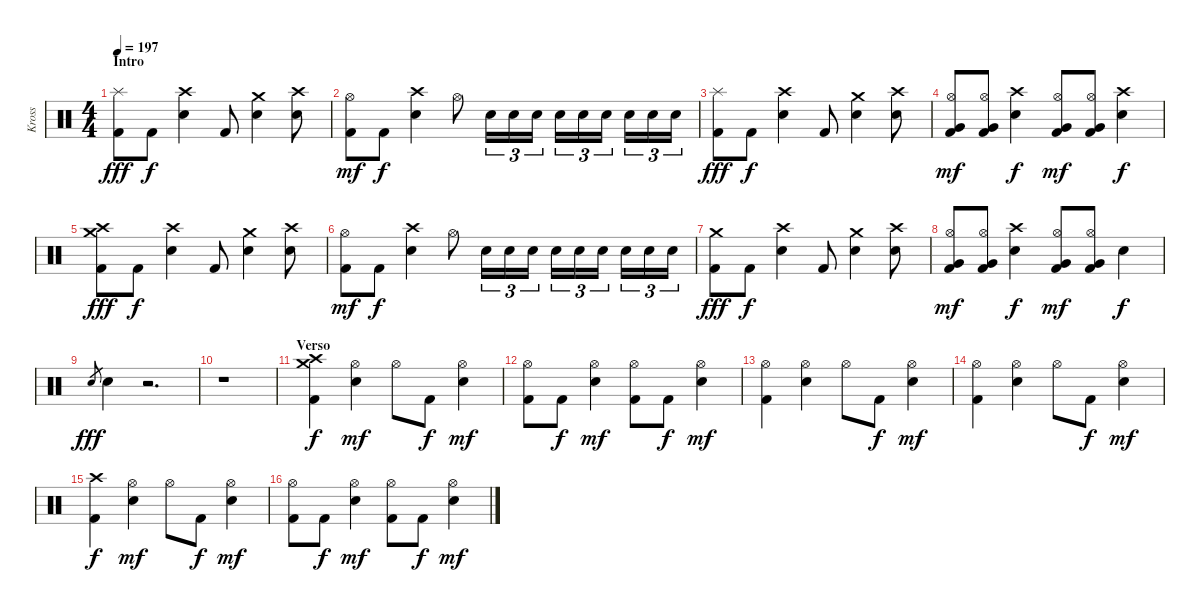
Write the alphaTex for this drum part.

\track ("Kross" "Kross") {instrument percussion}
\staff {score}
\articulation defaults
\ts (4 4)
\section ("" "Intro")
\tempo 197
\clef neutral
\ks c
("Splash (hit)" "Kick (hit) 2").8{dy fff} "Kick (hit) 2".8{dy f} ("Crash high (hit)" "Electric Snare (hit)").4 "Kick (hit) 2".8 ("Crash medium (hit)" "Electric Snare (hit)").4 ("Crash high (hit)" "Electric Snare (hit)").8 |
("Hi-Hat (open)" "Kick (hit) 2").8{dy mf} "Kick (hit) 2".8{dy f} ("Crash high (hit)" "Electric Snare (hit)").4 "Hi-Hat (open)".8 "Electric Snare (hit)".16{tu (3 2)} "Electric Snare (hit)".16{tu (3 2)} "Electric Snare (hit)".16{tu (3 2)} "Electric Snare (hit)".16{tu (3 2)} "Electric Snare (hit)".16{tu (3 2)} "Electric Snare (hit)".16{tu (3 2)} "Electric Snare (hit)".16{tu (3 2)} "Electric Snare (hit)".16{tu (3 2)} "Electric Snare (hit)".16{tu (3 2)} |
("Splash (hit)" "Kick (hit) 2").8{dy fff} "Kick (hit) 2".8{dy f} ("Crash high (hit)" "Electric Snare (hit)").4 "Kick (hit) 2".8 ("Crash medium (hit)" "Electric Snare (hit)").4 ("Crash high (hit)" "Electric Snare (hit)").8 |
("Hi-Hat (open)" "Very Low Tom (hit)" "Kick (hit) 2").8{dy mf} ("Hi-Hat (open)" "Very Low Tom (hit)" "Kick (hit) 2").8 ("Crash high (hit)" "Electric Snare (hit)").4{dy f} ("Hi-Hat (open)" "Very Low Tom (hit)" "Kick (hit) 2").8{dy mf} ("Hi-Hat (open)" "Very Low Tom (hit)" "Kick (hit) 2").8 ("Crash high (hit)" "Electric Snare (hit)").4{dy f} |
("Crash medium (hit)" "Crash high (hit)" "Kick (hit) 2").8{dy fff} "Kick (hit) 2".8{dy f} ("Crash high (hit)" "Electric Snare (hit)").4 "Kick (hit) 2".8 ("Crash medium (hit)" "Electric Snare (hit)").4 ("Crash high (hit)" "Electric Snare (hit)").8 |
("Hi-Hat (open)" "Kick (hit) 2").8{dy mf} "Kick (hit) 2".8{dy f} ("Crash high (hit)" "Electric Snare (hit)").4 "Hi-Hat (open)".8 "Electric Snare (hit)".16{tu (3 2)} "Electric Snare (hit)".16{tu (3 2)} "Electric Snare (hit)".16{tu (3 2)} "Electric Snare (hit)".16{tu (3 2)} "Electric Snare (hit)".16{tu (3 2)} "Electric Snare (hit)".16{tu (3 2)} "Electric Snare (hit)".16{tu (3 2)} "Electric Snare (hit)".16{tu (3 2)} "Electric Snare (hit)".16{tu (3 2)} |
("Crash medium (hit)" "Kick (hit) 2").8{dy fff} "Kick (hit) 2".8{dy f} ("Crash high (hit)" "Electric Snare (hit)").4 "Kick (hit) 2".8 ("Crash medium (hit)" "Electric Snare (hit)").4 ("Crash high (hit)" "Electric Snare (hit)").8 |
("Hi-Hat (open)" "Very Low Tom (hit)" "Kick (hit) 2").8{dy mf} ("Hi-Hat (open)" "Very Low Tom (hit)" "Kick (hit) 2").8 ("Crash high (hit)" "Electric Snare (hit)").4{dy f} ("Hi-Hat (open)" "Very Low Tom (hit)" "Kick (hit) 2").8{dy mf} ("Hi-Hat (open)" "Very Low Tom (hit)" "Kick (hit) 2").8 "Electric Snare (hit)".4{dy f} |
"Electric Snare (hit)".8{gr dy fff} "Electric Snare (hit)".4 r.2{d} |
r.1 |
\section ("" "Verso")
("Crash high (hit)" "Crash medium (hit)" "Kick (hit) 2").4{dy f} ("Hi-Hat (open)" "Electric Snare (hit)").4{dy mf} "Hi-Hat (open)".8 "Kick (hit) 2".8{dy f} ("Hi-Hat (open)" "Electric Snare (hit)").4{dy mf} |
("Hi-Hat (open)" "Kick (hit) 2").8 "Kick (hit) 2".8{dy f} ("Hi-Hat (open)" "Electric Snare (hit)").4{dy mf} ("Hi-Hat (open)" "Kick (hit) 2").8 "Kick (hit) 2".8{dy f} ("Hi-Hat (open)" "Electric Snare (hit)").4{dy mf} |
("Hi-Hat (open)" "Kick (hit) 2").4 ("Hi-Hat (open)" "Electric Snare (hit)").4 "Hi-Hat (open)".8 "Kick (hit) 2".8{dy f} ("Hi-Hat (open)" "Electric Snare (hit)").4{dy mf} |
("Hi-Hat (open)" "Kick (hit) 2").4 ("Hi-Hat (open)" "Electric Snare (hit)").4 "Hi-Hat (open)".8 "Kick (hit) 2".8{dy f} ("Hi-Hat (open)" "Electric Snare (hit)").4{dy mf} |
("Crash high (hit)" "Kick (hit) 2").4{dy f} ("Hi-Hat (open)" "Electric Snare (hit)").4{dy mf} "Hi-Hat (open)".8 "Kick (hit) 2".8{dy f} ("Hi-Hat (open)" "Electric Snare (hit)").4{dy mf} |
("Hi-Hat (open)" "Kick (hit) 2").8 "Kick (hit) 2".8{dy f} ("Hi-Hat (open)" "Electric Snare (hit)").4{dy mf} ("Hi-Hat (open)" "Kick (hit) 2").8 "Kick (hit) 2".8{dy f} ("Hi-Hat (open)" "Electric Snare (hit)").4{dy mf}
